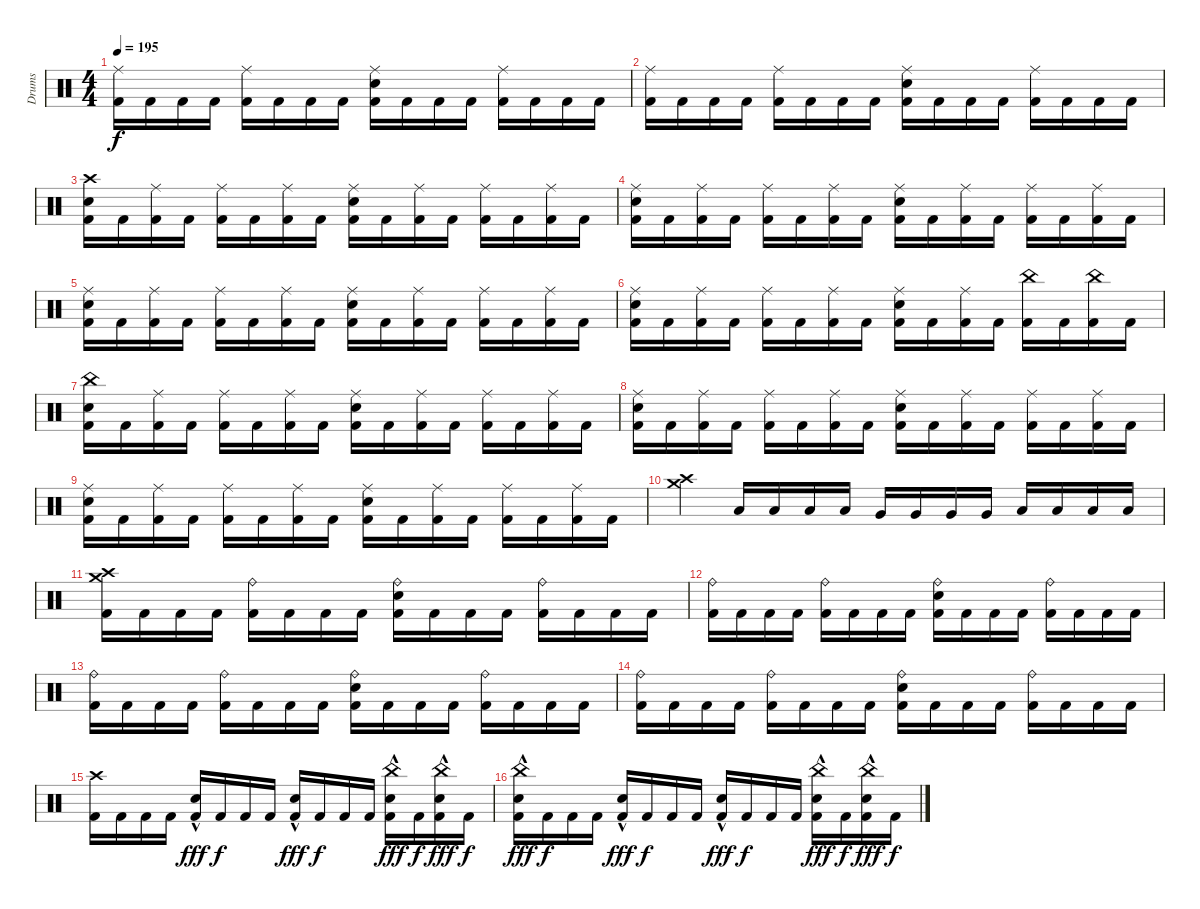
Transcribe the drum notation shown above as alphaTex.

\track ("Drums" "Drums") {instrument percussion}
\staff {score}
\articulation defaults
\ts (4 4)
\tempo 195
\clef neutral
\ks c
("Ride (middle)" "Kick (hit) 2").16{dy f} "Kick (hit) 2".16 "Kick (hit) 2".16 "Kick (hit) 2".16 ("Ride (middle)" "Kick (hit) 2").16 "Kick (hit) 2".16 "Kick (hit) 2".16 "Kick (hit) 2".16 ("Ride (middle)" "Kick (hit) 2" "Electric Snare (hit)").16 "Kick (hit) 2".16 "Kick (hit) 2".16 "Kick (hit) 2".16 ("Ride (middle)" "Kick (hit) 2").16 "Kick (hit) 2".16 "Kick (hit) 2".16 "Kick (hit) 2".16 |
("Ride (middle)" "Kick (hit) 2").16 "Kick (hit) 2".16 "Kick (hit) 2".16 "Kick (hit) 2".16 ("Ride (middle)" "Kick (hit) 2").16 "Kick (hit) 2".16 "Kick (hit) 2".16 "Kick (hit) 2".16 ("Ride (middle)" "Kick (hit) 2" "Electric Snare (hit)").16 "Kick (hit) 2".16 "Kick (hit) 2".16 "Kick (hit) 2".16 ("Ride (middle)" "Kick (hit) 2").16 "Kick (hit) 2".16 "Kick (hit) 2".16 "Kick (hit) 2".16 |
("Crash high (hit)" "Kick (hit) 2" "Electric Snare (hit)").16 "Kick (hit) 2".16 ("Ride (middle)" "Kick (hit) 2").16 "Kick (hit) 2".16 ("Ride (middle)" "Kick (hit) 2").16 "Kick (hit) 2".16 ("Ride (middle)" "Kick (hit) 2").16 "Kick (hit) 2".16 ("Ride (middle)" "Kick (hit) 2" "Electric Snare (hit)").16 "Kick (hit) 2".16 ("Ride (middle)" "Kick (hit) 2").16 "Kick (hit) 2".16 ("Ride (middle)" "Kick (hit) 2").16 "Kick (hit) 2".16 ("Ride (middle)" "Kick (hit) 2").16 "Kick (hit) 2".16 |
("Ride (middle)" "Kick (hit) 2" "Electric Snare (hit)").16 "Kick (hit) 2".16 ("Ride (middle)" "Kick (hit) 2").16 "Kick (hit) 2".16 ("Ride (middle)" "Kick (hit) 2").16 "Kick (hit) 2".16 ("Ride (middle)" "Kick (hit) 2").16 "Kick (hit) 2".16 ("Ride (middle)" "Kick (hit) 2" "Electric Snare (hit)").16 "Kick (hit) 2".16 ("Ride (middle)" "Kick (hit) 2").16 "Kick (hit) 2".16 ("Ride (middle)" "Kick (hit) 2").16 "Kick (hit) 2".16 ("Ride (middle)" "Kick (hit) 2").16 "Kick (hit) 2".16 |
("Ride (middle)" "Kick (hit) 2" "Electric Snare (hit)").16 "Kick (hit) 2".16 ("Ride (middle)" "Kick (hit) 2").16 "Kick (hit) 2".16 ("Ride (middle)" "Kick (hit) 2").16 "Kick (hit) 2".16 ("Ride (middle)" "Kick (hit) 2").16 "Kick (hit) 2".16 ("Ride (middle)" "Kick (hit) 2" "Electric Snare (hit)").16 "Kick (hit) 2".16 ("Ride (middle)" "Kick (hit) 2").16 "Kick (hit) 2".16 ("Ride (middle)" "Kick (hit) 2").16 "Kick (hit) 2".16 ("Ride (middle)" "Kick (hit) 2").16 "Kick (hit) 2".16 |
("Ride (middle)" "Kick (hit) 2" "Electric Snare (hit)").16 "Kick (hit) 2".16 ("Ride (middle)" "Kick (hit) 2").16 "Kick (hit) 2".16 ("Ride (middle)" "Kick (hit) 2").16 "Kick (hit) 2".16 ("Ride (middle)" "Kick (hit) 2").16 "Kick (hit) 2".16 ("Ride (middle)" "Kick (hit) 2" "Electric Snare (hit)").16 "Kick (hit) 2".16 ("Ride (middle)" "Kick (hit) 2").16 "Kick (hit) 2".16 ("China (hit)" "Kick (hit) 2").16 "Kick (hit) 2".16 ("China (hit)" "Kick (hit) 2").16 "Kick (hit) 2".16 |
("China (hit)" "Kick (hit) 2" "Electric Snare (hit)").16 "Kick (hit) 2".16 ("Ride (middle)" "Kick (hit) 2").16 "Kick (hit) 2".16 ("Ride (middle)" "Kick (hit) 2").16 "Kick (hit) 2".16 ("Ride (middle)" "Kick (hit) 2").16 "Kick (hit) 2".16 ("Ride (middle)" "Kick (hit) 2" "Electric Snare (hit)").16 "Kick (hit) 2".16 ("Ride (middle)" "Kick (hit) 2").16 "Kick (hit) 2".16 ("Ride (middle)" "Kick (hit) 2").16 "Kick (hit) 2".16 ("Ride (middle)" "Kick (hit) 2").16 "Kick (hit) 2".16 |
("Ride (middle)" "Kick (hit) 2" "Electric Snare (hit)").16 "Kick (hit) 2".16 ("Ride (middle)" "Kick (hit) 2").16 "Kick (hit) 2".16 ("Ride (middle)" "Kick (hit) 2").16 "Kick (hit) 2".16 ("Ride (middle)" "Kick (hit) 2").16 "Kick (hit) 2".16 ("Ride (middle)" "Kick (hit) 2" "Electric Snare (hit)").16 "Kick (hit) 2".16 ("Ride (middle)" "Kick (hit) 2").16 "Kick (hit) 2".16 ("Ride (middle)" "Kick (hit) 2").16 "Kick (hit) 2".16 ("Ride (middle)" "Kick (hit) 2").16 "Kick (hit) 2".16 |
("Ride (middle)" "Kick (hit) 2" "Electric Snare (hit)").16 "Kick (hit) 2".16 ("Ride (middle)" "Kick (hit) 2").16 "Kick (hit) 2".16 ("Ride (middle)" "Kick (hit) 2").16 "Kick (hit) 2".16 ("Ride (middle)" "Kick (hit) 2").16 "Kick (hit) 2".16 ("Ride (middle)" "Kick (hit) 2" "Electric Snare (hit)").16 "Kick (hit) 2".16 ("Ride (middle)" "Kick (hit) 2").16 "Kick (hit) 2".16 ("Ride (middle)" "Kick (hit) 2").16 "Kick (hit) 2".16 ("Ride (middle)" "Kick (hit) 2").16 "Kick (hit) 2".16 |
("Crash high (hit)" "Crash medium (hit)").4 "Low Tom (hit)".16 "Low Tom (hit)".16 "Low Tom (hit)".16 "Low Tom (hit)".16 "Very Low Tom (hit)".16 "Very Low Tom (hit)".16 "Very Low Tom (hit)".16 "Very Low Tom (hit)".16 "Low Floor Tom (hit)".16 "Low Floor Tom (hit)".16 "Low Floor Tom (hit)".16 "Low Floor Tom (hit)".16 |
("Crash high (hit)" "Kick (hit) 2" "Crash medium (hit)").16 "Kick (hit) 2".16 "Kick (hit) 2".16 "Kick (hit) 2".16 ("Ride (bell)" "Kick (hit) 2").16 "Kick (hit) 2".16 "Kick (hit) 2".16 "Kick (hit) 2".16 ("Ride (bell)" "Kick (hit) 2" "Electric Snare (hit)").16 "Kick (hit) 2".16 "Kick (hit) 2".16 "Kick (hit) 2".16 ("Ride (bell)" "Kick (hit) 2").16 "Kick (hit) 2".16 "Kick (hit) 2".16 "Kick (hit) 2".16 |
("Ride (bell)" "Kick (hit) 2").16 "Kick (hit) 2".16 "Kick (hit) 2".16 "Kick (hit) 2".16 ("Ride (bell)" "Kick (hit) 2").16 "Kick (hit) 2".16 "Kick (hit) 2".16 "Kick (hit) 2".16 ("Ride (bell)" "Kick (hit) 2" "Electric Snare (hit)").16 "Kick (hit) 2".16 "Kick (hit) 2".16 "Kick (hit) 2".16 ("Ride (bell)" "Kick (hit) 2").16 "Kick (hit) 2".16 "Kick (hit) 2".16 "Kick (hit) 2".16 |
("Ride (bell)" "Kick (hit) 2").16 "Kick (hit) 2".16 "Kick (hit) 2".16 "Kick (hit) 2".16 ("Ride (bell)" "Kick (hit) 2").16 "Kick (hit) 2".16 "Kick (hit) 2".16 "Kick (hit) 2".16 ("Ride (bell)" "Kick (hit) 2" "Electric Snare (hit)").16 "Kick (hit) 2".16 "Kick (hit) 2".16 "Kick (hit) 2".16 ("Ride (bell)" "Kick (hit) 2").16 "Kick (hit) 2".16 "Kick (hit) 2".16 "Kick (hit) 2".16 |
("Ride (bell)" "Kick (hit) 2").16 "Kick (hit) 2".16 "Kick (hit) 2".16 "Kick (hit) 2".16 ("Ride (bell)" "Kick (hit) 2").16 "Kick (hit) 2".16 "Kick (hit) 2".16 "Kick (hit) 2".16 ("Ride (bell)" "Kick (hit) 2" "Electric Snare (hit)").16 "Kick (hit) 2".16 "Kick (hit) 2".16 "Kick (hit) 2".16 ("Ride (bell)" "Kick (hit) 2").16 "Kick (hit) 2".16 "Kick (hit) 2".16 "Kick (hit) 2".16 |
("Crash high (hit)" "Kick (hit) 2").16 "Kick (hit) 2".16 "Kick (hit) 2".16 "Kick (hit) 2".16 ("Electric Snare (hit)"{hac} "Kick (hit) 2").16{dy fff} "Kick (hit) 2".16{dy f} "Kick (hit) 2".16 "Kick (hit) 2".16 ("Electric Snare (hit)"{hac} "Kick (hit) 2").16{dy fff} "Kick (hit) 2".16{dy f} "Kick (hit) 2".16 "Kick (hit) 2".16 ("Electric Snare (hit)"{hac} "Kick (hit) 2" "China (hit)"{hac}).16{dy fff} "Kick (hit) 2".16{dy f} ("Electric Snare (hit)"{hac} "Kick (hit) 2" "China (hit)"{hac}).16{dy fff} "Kick (hit) 2".16{dy f} |
("Electric Snare (hit)"{hac} "Kick (hit) 2" "China (hit)"{hac}).16{dy fff} "Kick (hit) 2".16{dy f} "Kick (hit) 2".16 "Kick (hit) 2".16 ("Electric Snare (hit)"{hac} "Kick (hit) 2").16{dy fff} "Kick (hit) 2".16{dy f} "Kick (hit) 2".16 "Kick (hit) 2".16 ("Electric Snare (hit)"{hac} "Kick (hit) 2").16{dy fff} "Kick (hit) 2".16{dy f} "Kick (hit) 2".16 "Kick (hit) 2".16 ("Electric Snare (hit)"{hac} "Kick (hit) 2" "China (hit)"{hac}).16{dy fff} "Kick (hit) 2".16{dy f} ("Electric Snare (hit)"{hac} "Kick (hit) 2" "China (hit)"{hac}).16{dy fff} "Kick (hit) 2".16{dy f}
